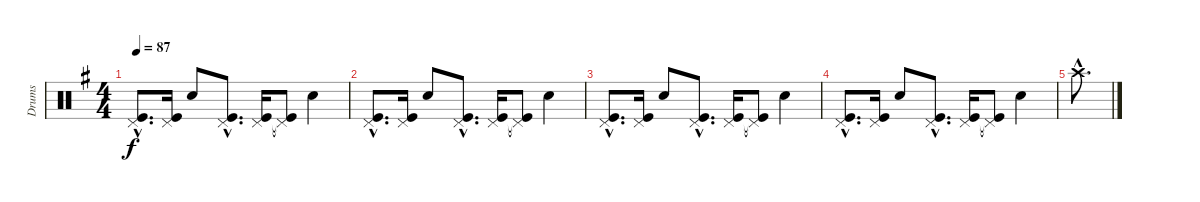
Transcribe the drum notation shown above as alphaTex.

\track ("Drums" "Drums") {instrument percussion}
\staff {score}
\articulation defaults
\ts (4 4)
\tempo 87
\clef neutral
\ks g
("Kick (hit)"{hac} "Pedal Hi-Hat (hit)"{hac}).8{d dy f} ("Kick (hit)" "Pedal Hi-Hat (hit)").16 "Snare (hit) 2".8 ("Kick (hit)"{hac} "Pedal Hi-Hat (hit)"{hac}).8{d} ("Kick (hit)" "Pedal Hi-Hat (hit)").16 ("Kick (hit)"{t} "Pedal Hi-Hat (hit)"{t}).8 "Snare (hit) 2".4 |
("Kick (hit)"{hac} "Pedal Hi-Hat (hit)"{hac}).8{d} ("Kick (hit)" "Pedal Hi-Hat (hit)").16 "Snare (hit) 2".8 ("Kick (hit)"{hac} "Pedal Hi-Hat (hit)"{hac}).8{d} ("Kick (hit)" "Pedal Hi-Hat (hit)").16 ("Kick (hit)"{t} "Pedal Hi-Hat (hit)"{t}).8 "Snare (hit) 2".4 |
("Kick (hit)"{hac} "Pedal Hi-Hat (hit)"{hac}).8{d} ("Kick (hit)" "Pedal Hi-Hat (hit)").16 "Snare (hit) 2".8 ("Kick (hit)"{hac} "Pedal Hi-Hat (hit)"{hac}).8{d} ("Kick (hit)" "Pedal Hi-Hat (hit)").16 ("Kick (hit)"{t} "Pedal Hi-Hat (hit)"{t}).8 "Snare (hit) 2".4 |
("Kick (hit)"{hac} "Pedal Hi-Hat (hit)"{hac}).8{d} ("Kick (hit)" "Pedal Hi-Hat (hit)").16 "Snare (hit) 2".8 ("Kick (hit)"{hac} "Pedal Hi-Hat (hit)"{hac}).8{d} ("Kick (hit)" "Pedal Hi-Hat (hit)").16 ("Kick (hit)"{t} "Pedal Hi-Hat (hit)"{t}).8 "Snare (hit) 2".4 |
"Crash high (hit)"{hac}.8{d}
